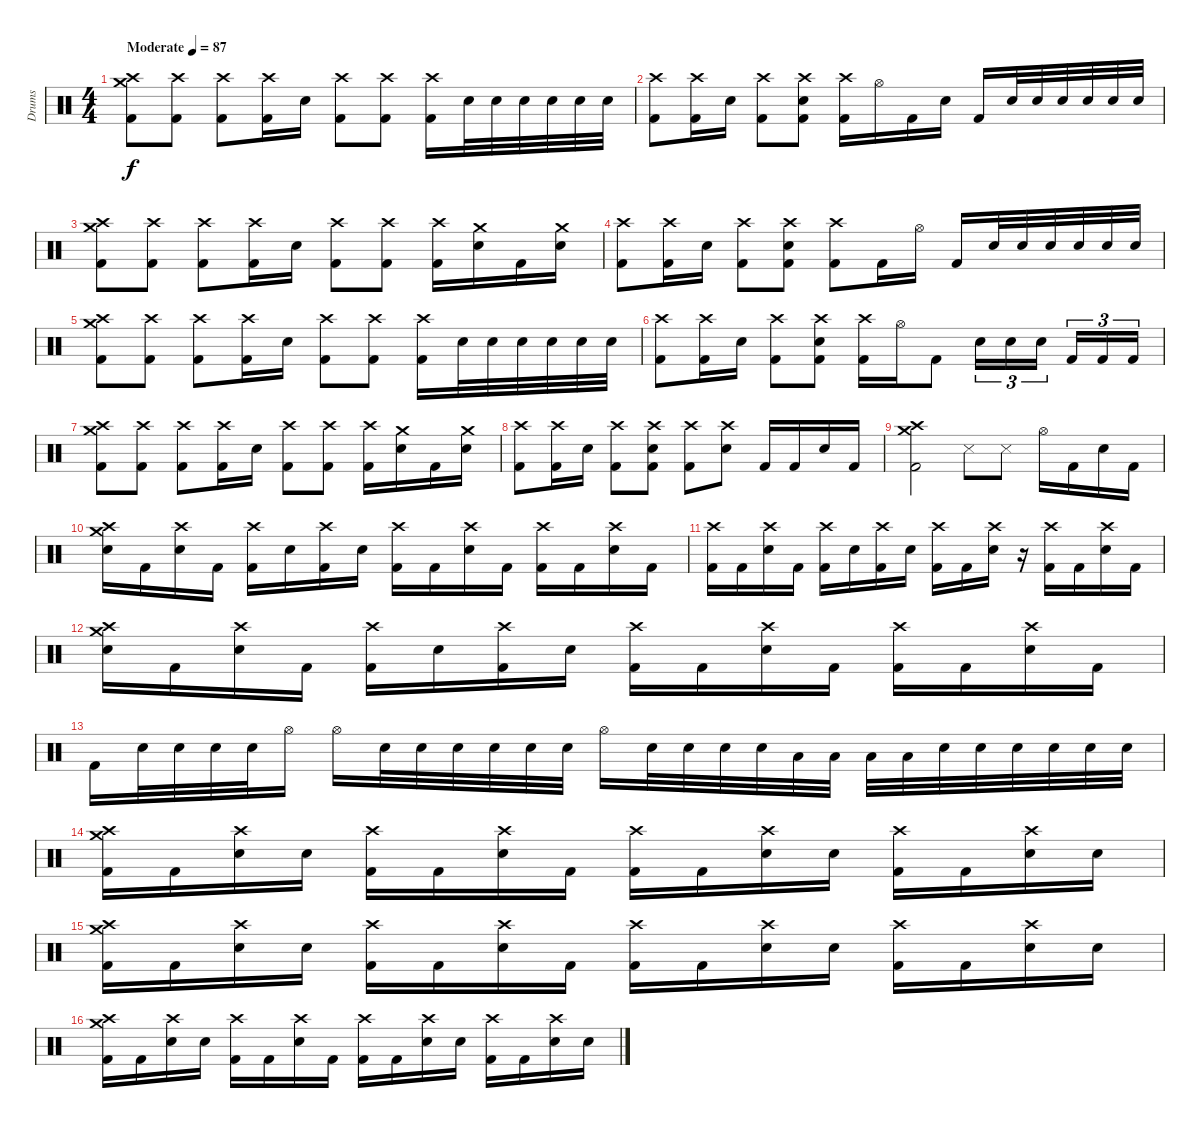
\track ("Drums" "Drums") {instrument percussion}
\staff {score}
\articulation defaults
\ts (4 4)
\tempo (87 "Moderate")
\clef neutral
\ks c
("Crash medium (hit)" "Crash high (hit)" "Kick (hit) 2").8{dy f} ("Crash high (hit)" "Kick (hit) 2").8 ("Crash high (hit)" "Kick (hit) 2").8 ("Crash high (hit)" "Kick (hit) 2").16 "Electric Snare (hit)".16 ("Crash high (hit)" "Kick (hit) 2").8 ("Crash high (hit)" "Kick (hit) 2").8 ("Crash high (hit)" "Kick (hit) 2").16 "Electric Snare (hit)".32 "Electric Snare (hit)".32 "Electric Snare (hit)".32 "Electric Snare (hit)".32 "Electric Snare (hit)".32 "Electric Snare (hit)".32 |
("Crash high (hit)" "Kick (hit) 2").8 ("Crash high (hit)" "Kick (hit) 2").16 "Electric Snare (hit)".16 ("Crash high (hit)" "Kick (hit) 2").8 ("Crash high (hit)" "Kick (hit) 2" "Electric Snare (hit)").8 ("Crash high (hit)" "Kick (hit) 2").16 "Hi-Hat (open)".16 "Kick (hit) 2".16 "Snare (hit)".16 "Kick (hit) 2".16 "Electric Snare (hit)".32 "Electric Snare (hit)".32 "Electric Snare (hit)".32 "Electric Snare (hit)".32 "Electric Snare (hit)".32 "Electric Snare (hit)".32 |
("Crash medium (hit)" "Crash high (hit)" "Kick (hit) 2").8 ("Crash high (hit)" "Kick (hit) 2").8 ("Crash high (hit)" "Kick (hit) 2").8 ("Crash high (hit)" "Kick (hit) 2").16 "Electric Snare (hit)".16 ("Crash high (hit)" "Kick (hit) 2").8 ("Crash high (hit)" "Kick (hit) 2").8 ("Crash high (hit)" "Kick (hit) 2").16 ("Crash medium (hit)" "Electric Snare (hit)").16 "Kick (hit) 2".16 ("Crash medium (hit)" "Electric Snare (hit)").16 |
("Crash high (hit)" "Kick (hit) 2").8 ("Crash high (hit)" "Kick (hit) 2").16 "Electric Snare (hit)".16 ("Crash high (hit)" "Kick (hit) 2").8 ("Crash high (hit)" "Kick (hit) 2" "Electric Snare (hit)").8 ("Crash high (hit)" "Kick (hit) 2").8 "Kick (hit) 2".16 "Hi-Hat (open)".16 "Kick (hit) 2".16 "Electric Snare (hit)".32 "Electric Snare (hit)".32 "Electric Snare (hit)".32 "Electric Snare (hit)".32 "Electric Snare (hit)".32 "Electric Snare (hit)".32 |
("Crash medium (hit)" "Crash high (hit)" "Kick (hit) 2").8 ("Crash high (hit)" "Kick (hit) 2").8 ("Crash high (hit)" "Kick (hit) 2").8 ("Crash high (hit)" "Kick (hit) 2").16 "Electric Snare (hit)".16 ("Crash high (hit)" "Kick (hit) 2").8 ("Crash high (hit)" "Kick (hit) 2").8 ("Crash high (hit)" "Kick (hit) 2").16 "Electric Snare (hit)".32 "Electric Snare (hit)".32 "Electric Snare (hit)".32 "Electric Snare (hit)".32 "Electric Snare (hit)".32 "Electric Snare (hit)".32 |
("Crash high (hit)" "Kick (hit) 2").8 ("Crash high (hit)" "Kick (hit) 2").16 "Electric Snare (hit)".16 ("Crash high (hit)" "Kick (hit) 2").8 ("Crash high (hit)" "Kick (hit) 2" "Electric Snare (hit)").8 ("Crash high (hit)" "Kick (hit) 2").16 "Hi-Hat (open)".16 "Kick (hit) 2".8 "Electric Snare (hit)".16{tu (3 2)} "Electric Snare (hit)".16{tu (3 2)} "Electric Snare (hit)".16{tu (3 2) beam splitsecondary} "Kick (hit) 2".16{tu (3 2)} "Kick (hit) 2".16{tu (3 2)} "Kick (hit) 2".16{tu (3 2)} |
("Crash medium (hit)" "Crash high (hit)" "Kick (hit) 2").8 ("Crash high (hit)" "Kick (hit) 2").8 ("Crash high (hit)" "Kick (hit) 2").8 ("Crash high (hit)" "Kick (hit) 2").16 "Electric Snare (hit)".16 ("Crash high (hit)" "Kick (hit) 2").8 ("Crash high (hit)" "Kick (hit) 2").8 ("Crash high (hit)" "Kick (hit) 2").16 ("Crash medium (hit)" "Electric Snare (hit)").16 "Kick (hit) 2".16 ("Crash medium (hit)" "Electric Snare (hit)").16 |
("Crash high (hit)" "Kick (hit) 2").8 ("Crash high (hit)" "Kick (hit) 2").16 "Electric Snare (hit)".16 ("Crash high (hit)" "Kick (hit) 2").8 ("Crash high (hit)" "Kick (hit) 2" "Electric Snare (hit)").8 ("Crash high (hit)" "Kick (hit) 2").8 ("Crash high (hit)" "Electric Snare (hit)").8 "Kick (hit) 2".16 "Kick (hit) 2".16 "Electric Snare (hit)".16 "Kick (hit) 2".16 |
("Crash medium (hit)" "Crash high (hit)" "Kick (hit) 2").2 "Snare (side stick) 3".8 "Snare (side stick) 3".8 "Hi-Hat (open)".16 "Kick (hit) 2".16 "Electric Snare (hit)".16 "Kick (hit) 2".16 |
("Crash medium (hit)" "Crash high (hit)" "Electric Snare (hit)").16 "Kick (hit) 2".16 ("Crash high (hit)" "Electric Snare (hit)").16 "Kick (hit) 2".16 ("Crash high (hit)" "Kick (hit) 2").16 "Electric Snare (hit)".16 ("Crash high (hit)" "Kick (hit) 2").16 "Electric Snare (hit)".16 ("Crash high (hit)" "Kick (hit) 2").16 "Kick (hit) 2".16 ("Crash high (hit)" "Electric Snare (hit)").16 "Kick (hit) 2".16 ("Crash high (hit)" "Kick (hit) 2").16 "Kick (hit) 2".16 ("Crash high (hit)" "Electric Snare (hit)").16 "Kick (hit) 2".16 |
("Crash high (hit)" "Kick (hit) 2").16 "Kick (hit) 2".16 ("Crash high (hit)" "Electric Snare (hit)").16 "Kick (hit) 2".16 ("Crash high (hit)" "Kick (hit) 2").16 "Electric Snare (hit)".16 ("Crash high (hit)" "Kick (hit) 2").16 "Electric Snare (hit)".16 ("Crash high (hit)" "Kick (hit) 2").16 "Kick (hit) 2".16 ("Crash high (hit)" "Electric Snare (hit)").16 r.16 ("Crash high (hit)" "Kick (hit) 2").16 "Kick (hit) 2".16 ("Crash high (hit)" "Electric Snare (hit)").16 "Kick (hit) 2".16 |
("Crash medium (hit)" "Crash high (hit)" "Electric Snare (hit)").16 "Kick (hit) 2".16 ("Crash high (hit)" "Electric Snare (hit)").16 "Kick (hit) 2".16 ("Crash high (hit)" "Kick (hit) 2").16 "Electric Snare (hit)".16 ("Crash high (hit)" "Kick (hit) 2").16 "Electric Snare (hit)".16 ("Crash high (hit)" "Kick (hit) 2").16 "Kick (hit) 2".16 ("Crash high (hit)" "Electric Snare (hit)").16 "Kick (hit) 2".16 ("Crash high (hit)" "Kick (hit) 2").16 "Kick (hit) 2".16 ("Crash high (hit)" "Electric Snare (hit)").16 "Kick (hit) 2".16 |
"Kick (hit) 2".16 "Electric Snare (hit)".32 "Electric Snare (hit)".32 "Electric Snare (hit)".32 "Electric Snare (hit)".32 "Hi-Hat (open)".16 "Hi-Hat (open)".16 "Electric Snare (hit)".32 "Electric Snare (hit)".32 "Electric Snare (hit)".32 "Electric Snare (hit)".32 "Electric Snare (hit)".32 "Electric Snare (hit)".32 "Hi-Hat (open)".16 "Electric Snare (hit)".32 "Electric Snare (hit)".32 "Electric Snare (hit)".32 "Electric Snare (hit)".32 "Low Tom (hit)".32 "Low Tom (hit)".32 "Low Tom (hit)".32 "Low Tom (hit)".32 "Electric Snare (hit)".32 "Electric Snare (hit)".32 "Electric Snare (hit)".32 "Electric Snare (hit)".32 "Electric Snare (hit)".32 "Electric Snare (hit)".32 |
("Crash medium (hit)" "Crash high (hit)" "Kick (hit) 2").16 "Kick (hit) 2".16 ("Crash high (hit)" "Electric Snare (hit)").16 "Snare (hit)".16 ("Crash high (hit)" "Kick (hit) 2").16 "Kick (hit) 2".16 ("Crash high (hit)" "Electric Snare (hit)").16 "Kick (hit) 2".16 ("Crash high (hit)" "Kick (hit) 2").16 "Kick (hit) 2".16 ("Crash high (hit)" "Electric Snare (hit)").16 "Snare (hit)".16 ("Crash high (hit)" "Kick (hit) 2").16 "Kick (hit) 2".16 ("Crash high (hit)" "Electric Snare (hit)").16 "Snare (hit)".16 |
("Crash medium (hit)" "Crash high (hit)" "Kick (hit) 2").16 "Kick (hit) 2".16 ("Crash high (hit)" "Electric Snare (hit)").16 "Snare (hit)".16 ("Crash high (hit)" "Kick (hit) 2").16 "Kick (hit) 2".16 ("Crash high (hit)" "Electric Snare (hit)").16 "Kick (hit) 2".16 ("Crash high (hit)" "Kick (hit) 2").16 "Kick (hit) 2".16 ("Crash high (hit)" "Electric Snare (hit)").16 "Snare (hit)".16 ("Crash high (hit)" "Kick (hit) 2").16 "Kick (hit) 2".16 ("Crash high (hit)" "Electric Snare (hit)").16 "Snare (hit)".16 |
("Crash medium (hit)" "Crash high (hit)" "Kick (hit) 2").16 "Kick (hit) 2".16 ("Crash high (hit)" "Electric Snare (hit)").16 "Snare (hit)".16 ("Crash high (hit)" "Kick (hit) 2").16 "Kick (hit) 2".16 ("Crash high (hit)" "Electric Snare (hit)").16 "Kick (hit) 2".16 ("Crash high (hit)" "Kick (hit) 2").16 "Kick (hit) 2".16 ("Crash high (hit)" "Electric Snare (hit)").16 "Snare (hit)".16 ("Crash high (hit)" "Kick (hit) 2").16 "Kick (hit) 2".16 ("Crash high (hit)" "Electric Snare (hit)").16 "Snare (hit)".16
